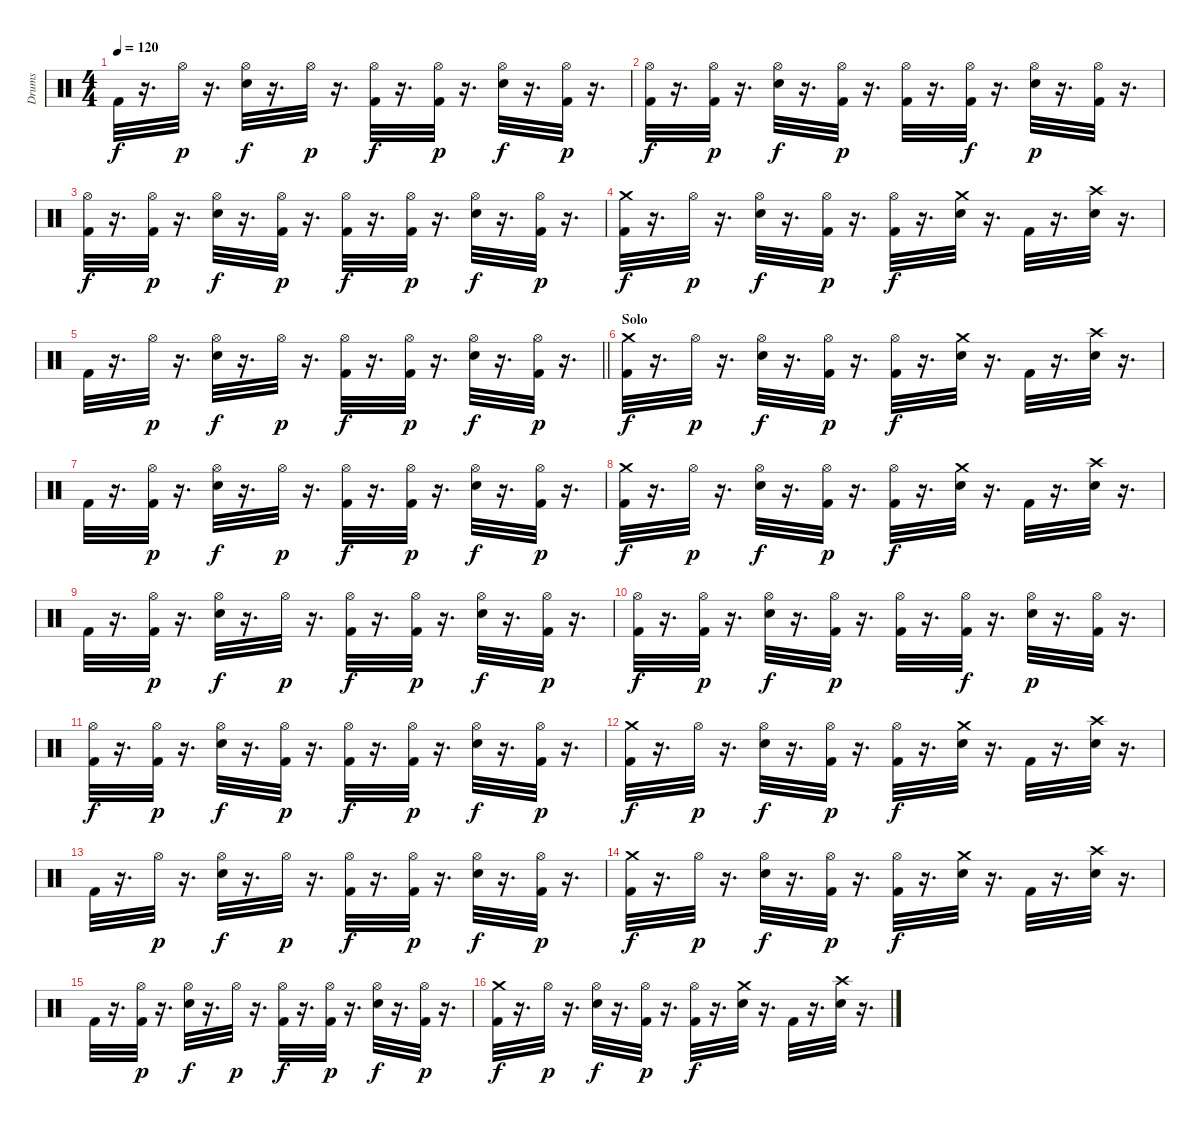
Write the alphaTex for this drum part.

\track ("Drums" "Drums") {instrument percussion}
\staff {score}
\articulation defaults
\ts (4 4)
\tempo 120
\clef neutral
\ks c "Kick (hit) 2".32{dy f}
r.16{d} "Hi-Hat (open)".32{dy p} r.16{d} ("Hi-Hat (open)" "Electric Snare (hit)").32{dy f} r.16{d} "Hi-Hat (open)".32{dy p} r.16{d} ("Hi-Hat (open)" "Kick (hit) 2").32{dy f} r.16{d} ("Hi-Hat (open)" "Kick (hit) 2").32{dy p} r.16{d} ("Hi-Hat (open)" "Electric Snare (hit)").32{dy f} r.16{d} ("Hi-Hat (open)" "Kick (hit) 2").32{dy p} r.16{d} |
("Hi-Hat (open)" "Kick (hit) 2").32{dy f} r.16{d} ("Hi-Hat (open)" "Kick (hit) 2").32{dy p} r.16{d} ("Hi-Hat (open)" "Electric Snare (hit)").32{dy f} r.16{d} ("Hi-Hat (open)" "Kick (hit) 2").32{dy p} r.16{d} ("Hi-Hat (open)" "Kick (hit) 2").32 r.16{d} ("Kick (hit) 2" "Hi-Hat (open)").32{dy f} r.16{d} ("Electric Snare (hit)" "Hi-Hat (open)").32{dy p} r.16{d} ("Kick (hit) 2" "Hi-Hat (open)").32 r.16{d} |
("Kick (hit) 2" "Hi-Hat (open)").32{dy f} r.16{d} ("Kick (hit) 2" "Hi-Hat (open)").32{dy p} r.16{d} ("Electric Snare (hit)" "Hi-Hat (open)").32{dy f} r.16{d} ("Kick (hit) 2" "Hi-Hat (open)").32{dy p} r.16{d} ("Kick (hit) 2" "Hi-Hat (open)").32{dy f} r.16{d} ("Kick (hit) 2" "Hi-Hat (open)").32{dy p} r.16{d} ("Electric Snare (hit)" "Hi-Hat (open)").32{dy f} r.16{d} ("Kick (hit) 2" "Hi-Hat (open)").32{dy p} r.16{d} |
("Crash medium (hit)" "Kick (hit) 2").32{dy f} r.16{d} "Hi-Hat (open)".32{dy p} r.16{d} ("Hi-Hat (open)" "Electric Snare (hit)").32{dy f} r.16{d} ("Kick (hit) 2" "Hi-Hat (open)").32{dy p} r.16{d} ("Hi-Hat (open)" "Kick (hit) 2").32{dy f} r.16{d} ("Crash medium (hit)" "Electric Snare (hit)").32 r.16{d} "Kick (hit) 2".32 r.16{d} ("Crash high (hit)" "Electric Snare (hit)").32 r.16{d} |
\barLineRight lightlight "Kick (hit) 2".32
r.16{d} "Hi-Hat (open)".32{dy p} r.16{d} ("Hi-Hat (open)" "Electric Snare (hit)").32{dy f} r.16{d} "Hi-Hat (open)".32{dy p} r.16{d} ("Hi-Hat (open)" "Kick (hit) 2").32{dy f} r.16{d} ("Hi-Hat (open)" "Kick (hit) 2").32{dy p} r.16{d} ("Hi-Hat (open)" "Electric Snare (hit)").32{dy f} r.16{d} ("Hi-Hat (open)" "Kick (hit) 2").32{dy p} r.16{d} |
\section ("" "Solo")
("Crash medium (hit)" "Kick (hit) 2").32{dy f} r.16{d} "Hi-Hat (open)".32{dy p} r.16{d} ("Hi-Hat (open)" "Electric Snare (hit)").32{dy f} r.16{d} ("Kick (hit) 2" "Hi-Hat (open)").32{dy p} r.16{d} ("Hi-Hat (open)" "Kick (hit) 2").32{dy f} r.16{d} ("Crash medium (hit)" "Electric Snare (hit)").32 r.16{d} "Kick (hit) 2".32 r.16{d} ("Crash high (hit)" "Electric Snare (hit)").32 r.16{d} |
"Kick (hit) 2".32 r.16{d} ("Kick (hit) 2" "Hi-Hat (open)").32{dy p} r.16{d} ("Hi-Hat (open)" "Electric Snare (hit)").32{dy f} r.16{d} "Hi-Hat (open)".32{dy p} r.16{d} ("Hi-Hat (open)" "Kick (hit) 2").32{dy f} r.16{d} ("Hi-Hat (open)" "Kick (hit) 2").32{dy p} r.16{d} ("Hi-Hat (open)" "Electric Snare (hit)").32{dy f} r.16{d} ("Hi-Hat (open)" "Kick (hit) 2").32{dy p} r.16{d} |
("Crash medium (hit)" "Kick (hit) 2").32{dy f} r.16{d} "Hi-Hat (open)".32{dy p} r.16{d} ("Hi-Hat (open)" "Electric Snare (hit)").32{dy f} r.16{d} ("Kick (hit) 2" "Hi-Hat (open)").32{dy p} r.16{d} ("Hi-Hat (open)" "Kick (hit) 2").32{dy f} r.16{d} ("Crash medium (hit)" "Electric Snare (hit)").32 r.16{d} "Kick (hit) 2".32 r.16{d} ("Crash high (hit)" "Electric Snare (hit)").32 r.16{d} |
"Kick (hit) 2".32 r.16{d} ("Kick (hit) 2" "Hi-Hat (open)").32{dy p} r.16{d} ("Hi-Hat (open)" "Electric Snare (hit)").32{dy f} r.16{d} "Hi-Hat (open)".32{dy p} r.16{d} ("Hi-Hat (open)" "Kick (hit) 2").32{dy f} r.16{d} ("Hi-Hat (open)" "Kick (hit) 2").32{dy p} r.16{d} ("Hi-Hat (open)" "Electric Snare (hit)").32{dy f} r.16{d} ("Hi-Hat (open)" "Kick (hit) 2").32{dy p} r.16{d} |
("Hi-Hat (open)" "Kick (hit) 2").32{dy f} r.16{d} ("Hi-Hat (open)" "Kick (hit) 2").32{dy p} r.16{d} ("Hi-Hat (open)" "Electric Snare (hit)").32{dy f} r.16{d} ("Hi-Hat (open)" "Kick (hit) 2").32{dy p} r.16{d} ("Hi-Hat (open)" "Kick (hit) 2").32 r.16{d} ("Kick (hit) 2" "Hi-Hat (open)").32{dy f} r.16{d} ("Electric Snare (hit)" "Hi-Hat (open)").32{dy p} r.16{d} ("Kick (hit) 2" "Hi-Hat (open)").32 r.16{d} |
("Kick (hit) 2" "Hi-Hat (open)").32{dy f} r.16{d} ("Kick (hit) 2" "Hi-Hat (open)").32{dy p} r.16{d} ("Electric Snare (hit)" "Hi-Hat (open)").32{dy f} r.16{d} ("Kick (hit) 2" "Hi-Hat (open)").32{dy p} r.16{d} ("Kick (hit) 2" "Hi-Hat (open)").32{dy f} r.16{d} ("Kick (hit) 2" "Hi-Hat (open)").32{dy p} r.16{d} ("Electric Snare (hit)" "Hi-Hat (open)").32{dy f} r.16{d} ("Kick (hit) 2" "Hi-Hat (open)").32{dy p} r.16{d} |
("Crash medium (hit)" "Kick (hit) 2").32{dy f} r.16{d} "Hi-Hat (open)".32{dy p} r.16{d} ("Hi-Hat (open)" "Electric Snare (hit)").32{dy f} r.16{d} ("Kick (hit) 2" "Hi-Hat (open)").32{dy p} r.16{d} ("Hi-Hat (open)" "Kick (hit) 2").32{dy f} r.16{d} ("Crash medium (hit)" "Electric Snare (hit)").32 r.16{d} "Kick (hit) 2".32 r.16{d} ("Crash high (hit)" "Electric Snare (hit)").32 r.16{d} |
"Kick (hit) 2".32 r.16{d} "Hi-Hat (open)".32{dy p} r.16{d} ("Hi-Hat (open)" "Electric Snare (hit)").32{dy f} r.16{d} "Hi-Hat (open)".32{dy p} r.16{d} ("Hi-Hat (open)" "Kick (hit) 2").32{dy f} r.16{d} ("Hi-Hat (open)" "Kick (hit) 2").32{dy p} r.16{d} ("Hi-Hat (open)" "Electric Snare (hit)").32{dy f} r.16{d} ("Hi-Hat (open)" "Kick (hit) 2").32{dy p} r.16{d} |
("Crash medium (hit)" "Kick (hit) 2").32{dy f} r.16{d} "Hi-Hat (open)".32{dy p} r.16{d} ("Hi-Hat (open)" "Electric Snare (hit)").32{dy f} r.16{d} ("Kick (hit) 2" "Hi-Hat (open)").32{dy p} r.16{d} ("Hi-Hat (open)" "Kick (hit) 2").32{dy f} r.16{d} ("Crash medium (hit)" "Electric Snare (hit)").32 r.16{d} "Kick (hit) 2".32 r.16{d} ("Crash high (hit)" "Electric Snare (hit)").32 r.16{d} |
"Kick (hit) 2".32 r.16{d} ("Kick (hit) 2" "Hi-Hat (open)").32{dy p} r.16{d} ("Hi-Hat (open)" "Electric Snare (hit)").32{dy f} r.16{d} "Hi-Hat (open)".32{dy p} r.16{d} ("Hi-Hat (open)" "Kick (hit) 2").32{dy f} r.16{d} ("Hi-Hat (open)" "Kick (hit) 2").32{dy p} r.16{d} ("Hi-Hat (open)" "Electric Snare (hit)").32{dy f} r.16{d} ("Hi-Hat (open)" "Kick (hit) 2").32{dy p} r.16{d} |
("Crash medium (hit)" "Kick (hit) 2").32{dy f} r.16{d} "Hi-Hat (open)".32{dy p} r.16{d} ("Hi-Hat (open)" "Electric Snare (hit)").32{dy f} r.16{d} ("Kick (hit) 2" "Hi-Hat (open)").32{dy p} r.16{d} ("Hi-Hat (open)" "Kick (hit) 2").32{dy f} r.16{d} ("Crash medium (hit)" "Electric Snare (hit)").32 r.16{d} "Kick (hit) 2".32 r.16{d} ("Crash high (hit)" "Electric Snare (hit)").32 r.16{d}
